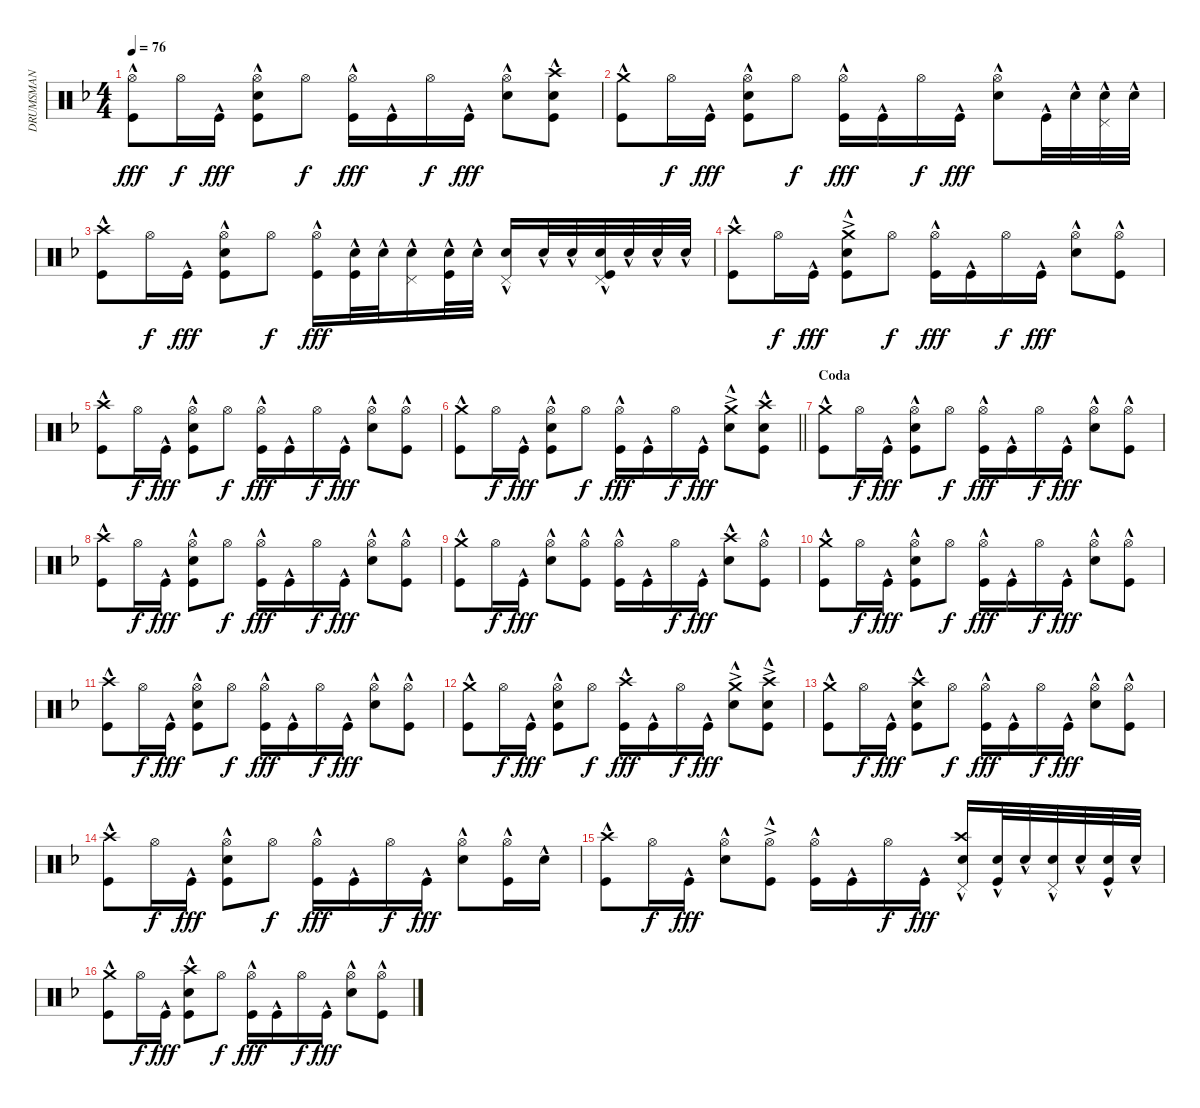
\track ("DRUMSMAN" "DRUMSMAN") {instrument percussion}
\staff {score}
\articulation defaults
\ts (4 4)
\tempo 76
\clef neutral
\ks f
("Hi-Hat (open)" "Kick (hit)"{hac}).8{dy fff} "Hi-Hat (open)".16{dy f} "Kick (hit)"{hac}.16{dy fff} ("Hi-Hat (open)" "Snare (hit) 2"{hac} "Kick (hit)"{hac}).8 "Hi-Hat (open)".8{dy f} ("Hi-Hat (open)" "Kick (hit)"{hac}).16{dy fff} "Kick (hit)"{hac}.16 "Hi-Hat (open)".16{dy f} "Kick (hit)"{hac}.16{dy fff} ("Hi-Hat (open)" "Snare (hit) 2"{hac}).8 ("Crash high (hit)"{hac} "Snare (hit) 2"{hac} "Kick (hit)"{hac}).8 |
("Crash medium (hit)"{hac} "Kick (hit)"{hac}).8 "Hi-Hat (open)".16{dy f} "Kick (hit)"{hac}.16{dy fff} ("Hi-Hat (open)" "Snare (hit) 2"{hac} "Kick (hit)"{hac}).8 "Hi-Hat (open)".8{dy f} ("Hi-Hat (open)" "Kick (hit)"{hac}).16{dy fff} "Kick (hit)"{hac}.16 "Hi-Hat (open)".16{dy f} "Kick (hit)"{hac}.16{dy fff} ("Hi-Hat (open)" "Snare (hit) 2"{hac}).8 "Kick (hit)"{hac}.32 "Snare (hit) 2"{hac}.32 ("Snare (hit) 2"{hac} "Pedal Hi-Hat (hit)").32 "Snare (hit) 2"{hac}.32 |
("Crash high (hit)"{hac} "Kick (hit)"{hac}).8 "Hi-Hat (open)".16{dy f} "Kick (hit)"{hac}.16{dy fff} ("Hi-Hat (open)" "Snare (hit) 2"{hac} "Kick (hit)"{hac}).8 "Hi-Hat (open)".8{dy f} ("Hi-Hat (open)" "Kick (hit)"{hac}).16{dy fff} ("Snare (hit) 2"{hac} "Kick (hit)"{hac}).32 "Snare (hit) 2"{hac}.32 ("Snare (hit) 2"{hac} "Pedal Hi-Hat (hit)").16 ("Snare (hit) 2"{hac} "Kick (hit)"{hac}).32 "Snare (hit) 2"{hac}.32 ("Snare (hit) 2"{hac} "Pedal Hi-Hat (hit)").16 "Snare (hit) 2"{hac}.32 "Snare (hit) 2"{hac}.32 ("Snare (hit) 2"{hac} "Pedal Hi-Hat (hit)" "Kick (hit)"{hac}).32 "Snare (hit) 2"{hac}.32 "Snare (hit) 2"{hac}.32 "Snare (hit) 2"{hac}.32 |
("Crash high (hit)"{hac} "Kick (hit)"{hac}).8 "Hi-Hat (open)".16{dy f} "Kick (hit)"{hac}.16{dy fff} ("Crash medium (hit)"{ac} "Snare (hit) 2"{hac} "Kick (hit)"{hac}).8 "Hi-Hat (open)".8{dy f} ("Hi-Hat (open)" "Kick (hit)"{hac}).16{dy fff} "Kick (hit)"{hac}.16 "Hi-Hat (open)".16{dy f} "Kick (hit)"{hac}.16{dy fff} ("Hi-Hat (open)" "Snare (hit) 2"{hac}).8 ("Hi-Hat (open)" "Kick (hit)"{hac}).8 |
("Crash high (hit)"{hac} "Kick (hit)"{hac}).8 "Hi-Hat (open)".16{dy f} "Kick (hit)"{hac}.16{dy fff} ("Hi-Hat (open)" "Snare (hit) 2"{hac} "Kick (hit)"{hac}).8 "Hi-Hat (open)".8{dy f} ("Hi-Hat (open)" "Kick (hit)"{hac}).16{dy fff} "Kick (hit)"{hac}.16 "Hi-Hat (open)".16{dy f} "Kick (hit)"{hac}.16{dy fff} ("Hi-Hat (open)" "Snare (hit) 2"{hac}).8 ("Hi-Hat (open)" "Kick (hit)"{hac}).8 |
\barLineRight lightlight
("Crash medium (hit)"{hac} "Kick (hit)"{hac}).8 "Hi-Hat (open)".16{dy f} "Kick (hit)"{hac}.16{dy fff} ("Hi-Hat (open)" "Snare (hit) 2"{hac} "Kick (hit)"{hac}).8 "Hi-Hat (open)".8{dy f} ("Hi-Hat (open)" "Kick (hit)"{hac}).16{dy fff} "Kick (hit)"{hac}.16 "Hi-Hat (open)".16{dy f} "Kick (hit)"{hac}.16{dy fff} ("Crash medium (hit)"{ac} "Snare (hit) 2"{hac}).8 ("Crash high (hit)"{hac} "Snare (hit) 2"{hac} "Kick (hit)"{hac}).8 |
\section ("" "Coda")
("Crash medium (hit)"{hac} "Kick (hit)"{hac}).8 "Hi-Hat (open)".16{dy f} "Kick (hit)"{hac}.16{dy fff} ("Hi-Hat (open)" "Snare (hit) 2"{hac} "Kick (hit)"{hac}).8 "Hi-Hat (open)".8{dy f} ("Hi-Hat (open)" "Kick (hit)"{hac}).16{dy fff} "Kick (hit)"{hac}.16 "Hi-Hat (open)".16{dy f} "Kick (hit)"{hac}.16{dy fff} ("Hi-Hat (open)" "Snare (hit) 2"{hac}).8 ("Hi-Hat (open)" "Kick (hit)"{hac}).8 |
("Crash high (hit)"{hac} "Kick (hit)"{hac}).8 "Hi-Hat (open)".16{dy f} "Kick (hit)"{hac}.16{dy fff} ("Hi-Hat (open)" "Snare (hit) 2"{hac} "Kick (hit)"{hac}).8 "Hi-Hat (open)".8{dy f} ("Hi-Hat (open)" "Kick (hit)"{hac}).16{dy fff} "Kick (hit)"{hac}.16 "Hi-Hat (open)".16{dy f} "Kick (hit)"{hac}.16{dy fff} ("Hi-Hat (open)" "Snare (hit) 2"{hac}).8 ("Hi-Hat (open)" "Kick (hit)"{hac}).8 |
("Crash medium (hit)"{hac} "Kick (hit)"{hac}).8 "Hi-Hat (open)".16{dy f} "Kick (hit)"{hac}.16{dy fff} ("Hi-Hat (open)" "Snare (hit) 2"{hac}).8 ("Hi-Hat (open)" "Kick (hit)"{hac}).8 ("Hi-Hat (open)" "Kick (hit)"{hac}).16 "Kick (hit)"{hac}.16 "Hi-Hat (open)".16{dy f} "Kick (hit)"{hac}.16{dy fff} ("Crash high (hit)"{hac} "Snare (hit) 2"{hac}).8 ("Hi-Hat (open)" "Kick (hit)"{hac}).8 |
("Crash medium (hit)"{hac} "Kick (hit)"{hac}).8 "Hi-Hat (open)".16{dy f} "Kick (hit)"{hac}.16{dy fff} ("Hi-Hat (open)" "Snare (hit) 2"{hac} "Kick (hit)"{hac}).8 "Hi-Hat (open)".8{dy f} ("Hi-Hat (open)" "Kick (hit)"{hac}).16{dy fff} "Kick (hit)"{hac}.16 "Hi-Hat (open)".16{dy f} "Kick (hit)"{hac}.16{dy fff} ("Hi-Hat (open)" "Snare (hit) 2"{hac}).8 ("Hi-Hat (open)" "Kick (hit)"{hac}).8 |
("Crash high (hit)"{hac} "Kick (hit)"{hac}).8 "Hi-Hat (open)".16{dy f} "Kick (hit)"{hac}.16{dy fff} ("Hi-Hat (open)" "Snare (hit) 2"{hac} "Kick (hit)"{hac}).8 "Hi-Hat (open)".8{dy f} ("Hi-Hat (open)" "Kick (hit)"{hac}).16{dy fff} "Kick (hit)"{hac}.16 "Hi-Hat (open)".16{dy f} "Kick (hit)"{hac}.16{dy fff} ("Hi-Hat (open)" "Snare (hit) 2"{hac}).8 ("Hi-Hat (open)" "Kick (hit)"{hac}).8 |
("Crash medium (hit)"{hac} "Kick (hit)"{hac}).8 "Hi-Hat (open)".16{dy f} "Kick (hit)"{hac}.16{dy fff} ("Hi-Hat (open)" "Snare (hit) 2"{hac} "Kick (hit)"{hac}).8 "Hi-Hat (open)".8{dy f} ("Crash high (hit)"{hac} "Kick (hit)"{hac}).16{dy fff} "Kick (hit)"{hac}.16 "Hi-Hat (open)".16{dy f} "Kick (hit)"{hac}.16{dy fff} ("Crash medium (hit)"{ac} "Snare (hit) 2"{hac}).8 ("Crash high (hit)"{ac} "Snare (hit) 2"{hac} "Kick (hit)"{hac}).8 |
("Crash medium (hit)"{hac} "Kick (hit)"{hac}).8 "Hi-Hat (open)".16{dy f} "Kick (hit)"{hac}.16{dy fff} ("Crash high (hit)"{hac} "Snare (hit) 2"{hac} "Kick (hit)"{hac}).8 "Hi-Hat (open)".8{dy f} ("Hi-Hat (open)" "Kick (hit)"{hac}).16{dy fff} "Kick (hit)"{hac}.16 "Hi-Hat (open)".16{dy f} "Kick (hit)"{hac}.16{dy fff} ("Hi-Hat (open)" "Snare (hit) 2"{hac}).8 ("Hi-Hat (open)" "Kick (hit)"{hac}).8 |
("Crash high (hit)"{hac} "Kick (hit)"{hac}).8 "Hi-Hat (open)".16{dy f} "Kick (hit)"{hac}.16{dy fff} ("Hi-Hat (open)" "Snare (hit) 2"{hac} "Kick (hit)"{hac}).8 "Hi-Hat (open)".8{dy f} ("Hi-Hat (open)" "Kick (hit)"{hac}).16{dy fff} "Kick (hit)"{hac}.16 "Hi-Hat (open)".16{dy f} "Kick (hit)"{hac}.16{dy fff} ("Hi-Hat (open)" "Snare (hit) 2"{hac}).8 ("Hi-Hat (open)" "Kick (hit)"{hac}).16 "Snare (hit) 2"{hac}.16 |
("Crash high (hit)"{hac} "Kick (hit)"{hac}).8 "Hi-Hat (open)".16{dy f} "Kick (hit)"{hac}.16{dy fff} ("Hi-Hat (open)" "Snare (hit) 2"{hac}).8 ("Hi-Hat (open)"{ac} "Kick (hit)"{hac}).8 ("Hi-Hat (open)" "Kick (hit)"{hac}).16 "Kick (hit)"{hac}.16 "Hi-Hat (open)".16{dy f} "Kick (hit)"{hac}.16{dy fff} ("Crash high (hit)"{hac} "Snare (hit) 2"{hac} "Pedal Hi-Hat (hit)").16 ("Snare (hit) 2"{hac} "Kick (hit)"{hac}).32 "Snare (hit) 2"{hac}.32 ("Snare (hit) 2"{hac} "Pedal Hi-Hat (hit)").32 "Snare (hit) 2"{hac}.32 ("Snare (hit) 2"{hac} "Kick (hit)"{hac}).32 "Snare (hit) 2"{hac}.32 |
("Crash medium (hit)"{hac} "Kick (hit)"{hac}).8 "Hi-Hat (open)".16{dy f} "Kick (hit)"{hac}.16{dy fff} ("Crash high (hit)"{hac} "Snare (hit) 2"{hac} "Kick (hit)"{hac}).8 "Hi-Hat (open)".8{dy f} ("Hi-Hat (open)" "Kick (hit)"{hac}).16{dy fff} "Kick (hit)"{hac}.16 "Hi-Hat (open)".16{dy f} "Kick (hit)"{hac}.16{dy fff} ("Hi-Hat (open)" "Snare (hit) 2"{hac}).8 ("Hi-Hat (open)" "Kick (hit)"{hac}).8
